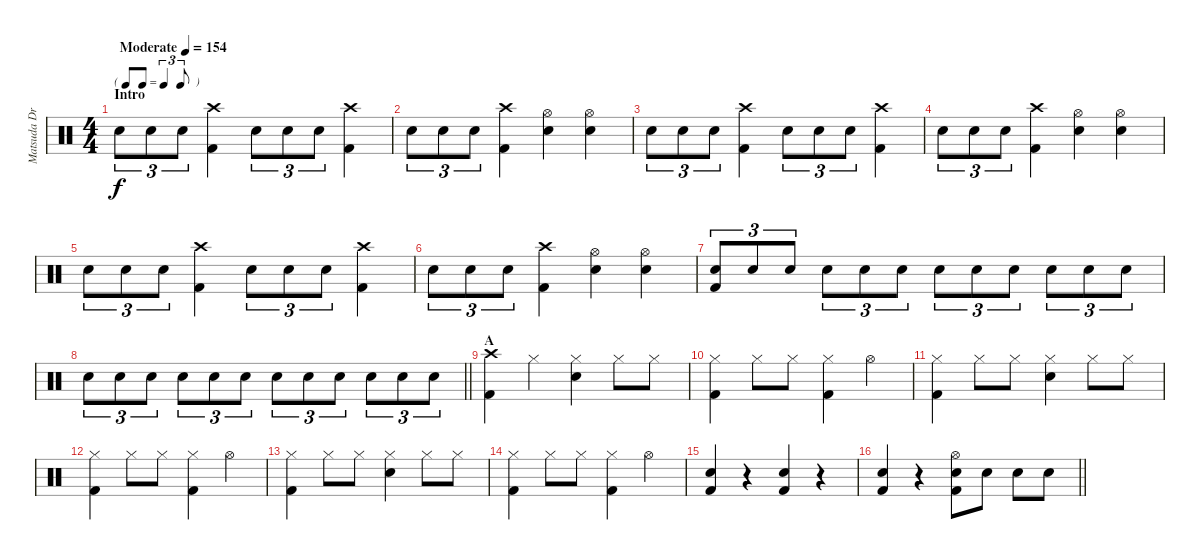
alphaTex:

\track ("Matsuda Drums" "Matsuda Dr") {instrument percussion}
\staff {score}
\articulation defaults
\ts (4 4)
\tf triplet8th
\section ("" "Intro")
\tempo (154 "Moderate")
\clef neutral
\ks c "Snare (hit) 2".8{tu (3 2) dy f} "Snare (hit) 2".8{tu (3 2)} "Snare (hit) 2".8{tu (3 2)}
("Crash high (hit)" "Kick (hit) 2").4 "Snare (hit) 2".8{tu (3 2)} "Snare (hit) 2".8{tu (3 2)} "Snare (hit) 2".8{tu (3 2)} ("Crash high (hit)" "Kick (hit) 2").4 |
"Snare (hit) 2".8{tu (3 2)} "Snare (hit) 2".8{tu (3 2)} "Snare (hit) 2".8{tu (3 2)} ("Crash high (hit)" "Kick (hit) 2").4 ("Hi-Hat (open)" "Snare (hit) 2").4 ("Hi-Hat (open)" "Snare (hit) 2").4 |
"Snare (hit) 2".8{tu (3 2)} "Snare (hit) 2".8{tu (3 2)} "Snare (hit) 2".8{tu (3 2)} ("Crash high (hit)" "Kick (hit) 2").4 "Snare (hit) 2".8{tu (3 2)} "Snare (hit) 2".8{tu (3 2)} "Snare (hit) 2".8{tu (3 2)} ("Crash high (hit)" "Kick (hit) 2").4 |
"Snare (hit) 2".8{tu (3 2)} "Snare (hit) 2".8{tu (3 2)} "Snare (hit) 2".8{tu (3 2)} ("Crash high (hit)" "Kick (hit) 2").4 ("Hi-Hat (open)" "Snare (hit) 2").4 ("Hi-Hat (open)" "Snare (hit) 2").4 |
"Snare (hit) 2".8{tu (3 2)} "Snare (hit) 2".8{tu (3 2)} "Snare (hit) 2".8{tu (3 2)} ("Crash high (hit)" "Kick (hit) 2").4 "Snare (hit) 2".8{tu (3 2)} "Snare (hit) 2".8{tu (3 2)} "Snare (hit) 2".8{tu (3 2)} ("Crash high (hit)" "Kick (hit) 2").4 |
"Snare (hit) 2".8{tu (3 2)} "Snare (hit) 2".8{tu (3 2)} "Snare (hit) 2".8{tu (3 2)} ("Crash high (hit)" "Kick (hit) 2").4 ("Hi-Hat (open)" "Snare (hit) 2").4 ("Hi-Hat (open)" "Snare (hit) 2").4 |
("Snare (hit) 2" "Kick (hit) 2").8{tu (3 2)} "Snare (hit) 2".8{tu (3 2)} "Snare (hit) 2".8{tu (3 2)} "Snare (hit) 2".8{tu (3 2)} "Snare (hit) 2".8{tu (3 2)} "Snare (hit) 2".8{tu (3 2)} "Snare (hit) 2".8{tu (3 2)} "Snare (hit) 2".8{tu (3 2)} "Snare (hit) 2".8{tu (3 2)} "Snare (hit) 2".8{tu (3 2)} "Snare (hit) 2".8{tu (3 2)} "Snare (hit) 2".8{tu (3 2)} |
\barLineRight lightlight "Snare (hit) 2".8{tu (3 2)} "Snare (hit) 2".8{tu (3 2)} "Snare (hit) 2".8{tu (3 2)} "Snare (hit) 2".8{tu (3 2)} "Snare (hit) 2".8{tu (3 2)} "Snare (hit) 2".8{tu (3 2)} "Snare (hit) 2".8{tu (3 2)} "Snare (hit) 2".8{tu (3 2)} "Snare (hit) 2".8{tu (3 2)} "Snare (hit) 2".8{tu (3 2)} "Snare (hit) 2".8{tu (3 2)} "Snare (hit) 2".8{tu (3 2)}
|
\section ("" "A")
("Crash high (hit)" "Kick (hit) 2").4 "Hi-Hat (closed)".4 ("Hi-Hat (closed)" "Snare (hit) 2").4 "Hi-Hat (closed)".8 "Hi-Hat (closed)".8 |
("Hi-Hat (closed)" "Kick (hit) 2").4 "Hi-Hat (closed)".8 "Hi-Hat (closed)".8 ("Hi-Hat (closed)" "Kick (hit) 2").4 "Hi-Hat (open)".4 |
("Hi-Hat (closed)" "Kick (hit) 2").4 "Hi-Hat (closed)".8 "Hi-Hat (closed)".8 ("Hi-Hat (closed)" "Snare (hit) 2").4 "Hi-Hat (closed)".8 "Hi-Hat (closed)".8 |
("Hi-Hat (closed)" "Kick (hit) 2").4 "Hi-Hat (closed)".8 "Hi-Hat (closed)".8 ("Hi-Hat (closed)" "Kick (hit) 2").4 "Hi-Hat (open)".4 |
("Hi-Hat (closed)" "Kick (hit) 2").4 "Hi-Hat (closed)".8 "Hi-Hat (closed)".8 ("Hi-Hat (closed)" "Snare (hit) 2").4 "Hi-Hat (closed)".8 "Hi-Hat (closed)".8 |
("Hi-Hat (closed)" "Kick (hit) 2").4 "Hi-Hat (closed)".8 "Hi-Hat (closed)".8 ("Hi-Hat (closed)" "Kick (hit) 2").4 "Hi-Hat (open)".4 |
("Snare (hit) 2" "Kick (hit) 2").4 r.4 ("Snare (hit) 2" "Kick (hit) 2").4 r.4 |
\barLineRight lightlight
("Snare (hit) 2" "Kick (hit) 2").4 r.4 ("Hi-Hat (open)" "Snare (hit) 2" "Kick (hit) 2").8 "Snare (hit) 2".8 "Snare (hit) 2".8 "Snare (hit) 2".8
